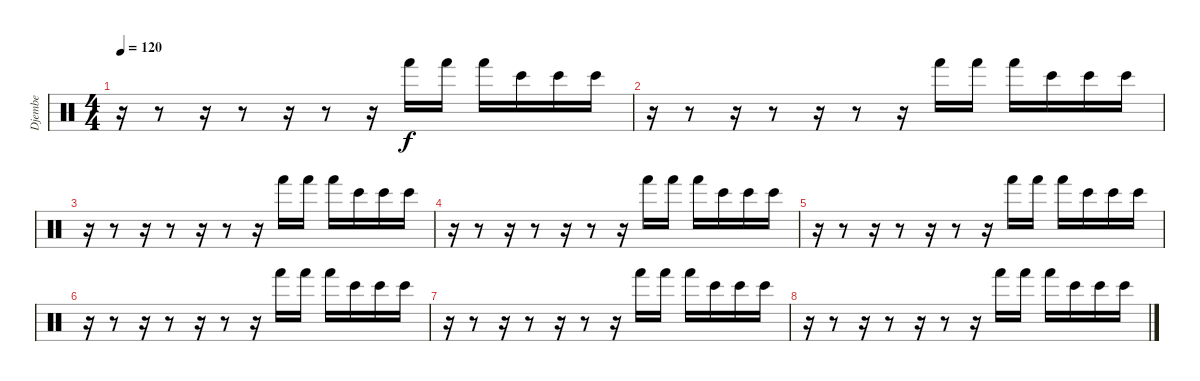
\track ("Djembe" "Djembe") {instrument percussion}
\staff {score}
\articulation defaults
\ts (4 4)
\tempo 120
\clef neutral
\ks c
r.16{dy f} r.8 r.16 r.8 r.16 r.8 r.16 "Hand (hit)".16 "Hand (hit)".16 "Hand (hit)".16 "Bongo High (hit)".16 "Bongo High (hit)".16 "Bongo High (hit)".16 |
r.16 r.8 r.16 r.8 r.16 r.8 r.16 "Hand (hit)".16 "Hand (hit)".16 "Hand (hit)".16 "Bongo High (hit)".16 "Bongo High (hit)".16 "Bongo High (hit)".16 |
r.16 r.8 r.16 r.8 r.16 r.8 r.16 "Hand (hit)".16 "Hand (hit)".16 "Hand (hit)".16 "Bongo High (hit)".16 "Bongo High (hit)".16 "Bongo High (hit)".16 |
r.16 r.8 r.16 r.8 r.16 r.8 r.16 "Hand (hit)".16 "Hand (hit)".16 "Hand (hit)".16 "Bongo High (hit)".16 "Bongo High (hit)".16 "Bongo High (hit)".16 |
r.16 r.8 r.16 r.8 r.16 r.8 r.16 "Hand (hit)".16 "Hand (hit)".16 "Hand (hit)".16 "Bongo High (hit)".16 "Bongo High (hit)".16 "Bongo High (hit)".16 |
r.16 r.8 r.16 r.8 r.16 r.8 r.16 "Hand (hit)".16 "Hand (hit)".16 "Hand (hit)".16 "Bongo High (hit)".16 "Bongo High (hit)".16 "Bongo High (hit)".16 |
r.16 r.8 r.16 r.8 r.16 r.8 r.16 "Hand (hit)".16 "Hand (hit)".16 "Hand (hit)".16 "Bongo High (hit)".16 "Bongo High (hit)".16 "Bongo High (hit)".16 |
r.16 r.8 r.16 r.8 r.16 r.8 r.16 "Hand (hit)".16 "Hand (hit)".16 "Hand (hit)".16 "Bongo High (hit)".16 "Bongo High (hit)".16 "Bongo High (hit)".16
